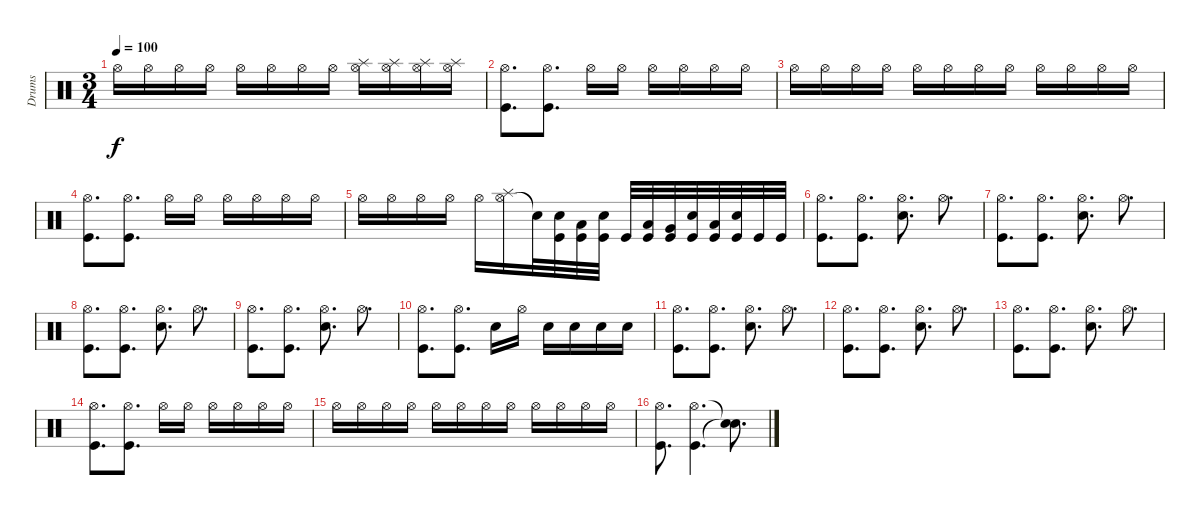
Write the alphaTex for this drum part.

\track ("Drums" "Drums") {instrument percussion}
\staff {score}
\articulation defaults
\ts (3 4)
\tempo 100
\clef neutral
\ks c "Hi-Hat (open)".16{dy f} "Hi-Hat (open)".16 "Hi-Hat (open)".16 "Hi-Hat (open)".16 "Hi-Hat (open)".16 "Hi-Hat (open)".16 "Hi-Hat (open)".16 "Hi-Hat (open)".16
("Hi-Hat (open)" "Splash (hit)").16 ("Hi-Hat (open)" "Splash (hit)").16 ("Hi-Hat (open)" "Splash (hit)").16 ("Hi-Hat (open)" "Splash (hit)").16 |
("Hi-Hat (open)" "Kick (hit)").8{d} ("Hi-Hat (open)" "Kick (hit)").8{d} "Hi-Hat (open)".16 "Hi-Hat (open)".16 "Hi-Hat (open)".16 "Hi-Hat (open)".16 "Hi-Hat (open)".16 "Hi-Hat (open)".16 |
"Hi-Hat (open)".16 "Hi-Hat (open)".16 "Hi-Hat (open)".16 "Hi-Hat (open)".16 "Hi-Hat (open)".16 "Hi-Hat (open)".16 "Hi-Hat (open)".16 "Hi-Hat (open)".16 "Hi-Hat (open)".16 "Hi-Hat (open)".16 "Hi-Hat (open)".16 "Hi-Hat (open)".16 |
("Hi-Hat (open)" "Kick (hit)").8{d} ("Hi-Hat (open)" "Kick (hit)").8{d} "Hi-Hat (open)".16 "Hi-Hat (open)".16 "Hi-Hat (open)".16 "Hi-Hat (open)".16 "Hi-Hat (open)".16 "Hi-Hat (open)".16 |
"Hi-Hat (open)".16 "Hi-Hat (open)".16 "Hi-Hat (open)".16 "Hi-Hat (open)".16 "Hi-Hat (open)".16 ("Hi-Hat (open)" "Splash (hit)").16 "Snare (hit)"{t}.32 ("Snare (hit) 2" "Kick (hit)").32 ("Low Floor Tom (hit)" "Kick (hit)").32 ("Snare (hit) 2" "Kick (hit)").32 "Kick (hit)".32 ("Low Floor Tom (hit)" "Kick (hit)").32 ("Very Low Tom (hit)" "Kick (hit)").32 ("Snare (hit) 2" "Kick (hit)").32 ("Low Floor Tom (hit)" "Kick (hit)").32 ("Snare (hit) 2" "Kick (hit)").32 "Kick (hit)".32 "Kick (hit)".32 |
("Hi-Hat (open)" "Kick (hit)").8{d} ("Hi-Hat (open)" "Kick (hit)").8{d} ("Hi-Hat (open)" "Snare (hit) 2").8{d} "Hi-Hat (open)".8{d} |
("Hi-Hat (open)" "Kick (hit)").8{d} ("Hi-Hat (open)" "Kick (hit)").8{d} ("Hi-Hat (open)" "Snare (hit) 2").8{d} "Hi-Hat (open)".8{d} |
("Hi-Hat (open)" "Kick (hit)").8{d} ("Hi-Hat (open)" "Kick (hit)").8{d} ("Hi-Hat (open)" "Snare (hit) 2").8{d} "Hi-Hat (open)".8{d} |
("Hi-Hat (open)" "Kick (hit)").8{d} ("Hi-Hat (open)" "Kick (hit)").8{d} ("Hi-Hat (open)" "Snare (hit) 2").8{d} "Hi-Hat (open)".8{d} |
("Hi-Hat (open)" "Kick (hit)").8{d} ("Hi-Hat (open)" "Kick (hit)").8{d} "Snare (hit) 2".16 "Hi-Hat (open)".16 "Snare (hit) 2".16 "Snare (hit) 2".16 "Snare (hit) 2".16 "Snare (hit) 2".16 |
("Hi-Hat (open)" "Kick (hit)").8{d} ("Hi-Hat (open)" "Kick (hit)").8{d} ("Hi-Hat (open)" "Snare (hit) 2").8{d} "Hi-Hat (open)".8{d} |
("Hi-Hat (open)" "Kick (hit)").8{d} ("Hi-Hat (open)" "Kick (hit)").8{d} ("Hi-Hat (open)" "Snare (hit) 2").8{d} "Hi-Hat (open)".8{d} |
("Hi-Hat (open)" "Kick (hit)").8{d} ("Hi-Hat (open)" "Kick (hit)").8{d} ("Hi-Hat (open)" "Snare (hit) 2").8{d} "Hi-Hat (open)".8{d} |
("Hi-Hat (open)" "Kick (hit)").8{d} ("Hi-Hat (open)" "Kick (hit)").8{d} "Hi-Hat (open)".16 "Hi-Hat (open)".16 "Hi-Hat (open)".16 "Hi-Hat (open)".16 "Hi-Hat (open)".16 "Hi-Hat (open)".16 |
"Hi-Hat (open)".16 "Hi-Hat (open)".16 "Hi-Hat (open)".16 "Hi-Hat (open)".16 "Hi-Hat (open)".16 "Hi-Hat (open)".16 "Hi-Hat (open)".16 "Hi-Hat (open)".16 "Hi-Hat (open)".16 "Hi-Hat (open)".16 "Hi-Hat (open)".16 "Hi-Hat (open)".16 |
("Hi-Hat (open)" "Kick (hit)").8{d} ("Hi-Hat (open)" "Kick (hit)").4{d} ("Snare (hit)"{t} "Snare (hit)"{t}).8{d}
